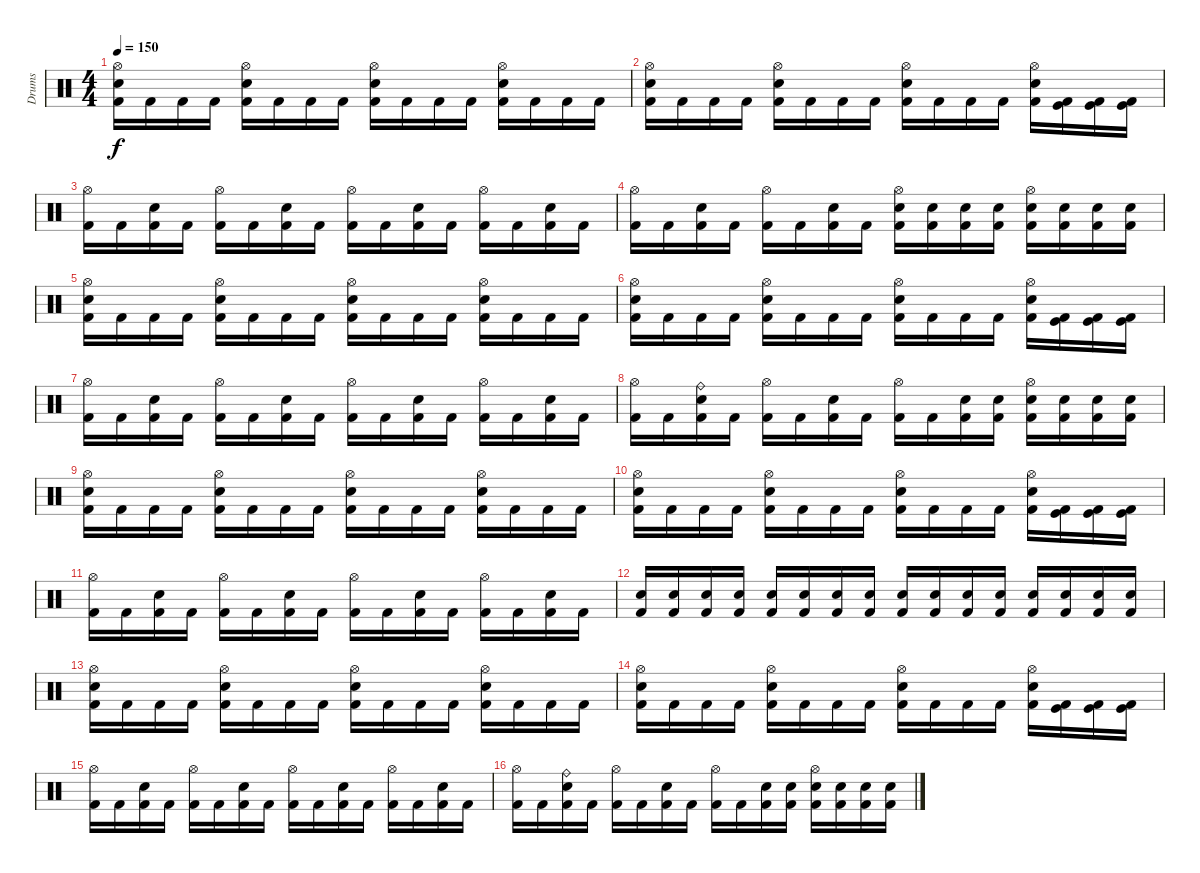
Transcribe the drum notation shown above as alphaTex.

\track ("Drums" "Drums") {instrument percussion}
\staff {score}
\articulation defaults
\ts (4 4)
\tempo 150
\clef neutral
\ks c
("Hi-Hat (open)" "Electric Snare (hit)" "Kick (hit) 2").16{dy f} "Kick (hit) 2".16 "Kick (hit) 2".16 "Kick (hit) 2".16 ("Hi-Hat (open)" "Electric Snare (hit)" "Kick (hit) 2").16 "Kick (hit) 2".16 "Kick (hit) 2".16 "Kick (hit) 2".16 ("Hi-Hat (open)" "Electric Snare (hit)" "Kick (hit) 2").16 "Kick (hit) 2".16 "Kick (hit) 2".16 "Kick (hit) 2".16 ("Hi-Hat (open)" "Electric Snare (hit)" "Kick (hit) 2").16 "Kick (hit) 2".16 "Kick (hit) 2".16 "Kick (hit) 2".16 |
("Hi-Hat (open)" "Electric Snare (hit)" "Kick (hit) 2").16 "Kick (hit) 2".16 "Kick (hit) 2".16 "Kick (hit) 2".16 ("Hi-Hat (open)" "Electric Snare (hit)" "Kick (hit) 2").16 "Kick (hit) 2".16 "Kick (hit) 2".16 "Kick (hit) 2".16 ("Hi-Hat (open)" "Electric Snare (hit)" "Kick (hit) 2").16 "Kick (hit) 2".16 "Kick (hit) 2".16 "Kick (hit) 2".16 ("Hi-Hat (open)" "Electric Snare (hit)" "Kick (hit) 2").16 ("Kick (hit)" "Kick (hit) 2").16 ("Kick (hit)" "Kick (hit) 2").16 ("Kick (hit)" "Kick (hit) 2").16 |
("Hi-Hat (open)" "Kick (hit) 2").16 "Kick (hit) 2".16 ("Electric Snare (hit)" "Kick (hit) 2").16 "Kick (hit) 2".16 ("Hi-Hat (open)" "Kick (hit) 2").16 "Kick (hit) 2".16 ("Electric Snare (hit)" "Kick (hit) 2").16 "Kick (hit) 2".16 ("Hi-Hat (open)" "Kick (hit) 2").16 "Kick (hit) 2".16 ("Electric Snare (hit)" "Kick (hit) 2").16 "Kick (hit) 2".16 ("Hi-Hat (open)" "Kick (hit) 2").16 "Kick (hit) 2".16 ("Electric Snare (hit)" "Kick (hit) 2").16 "Kick (hit) 2".16 |
("Hi-Hat (open)" "Kick (hit) 2").16 "Kick (hit) 2".16 ("Electric Snare (hit)" "Kick (hit) 2").16 "Kick (hit) 2".16 ("Hi-Hat (open)" "Kick (hit) 2").16 "Kick (hit) 2".16 ("Electric Snare (hit)" "Kick (hit) 2").16 "Kick (hit) 2".16 ("Hi-Hat (open)" "Snare (hit) 2" "Kick (hit) 2").16 ("Snare (hit) 2" "Kick (hit) 2").16 ("Snare (hit) 2" "Kick (hit) 2").16 ("Snare (hit) 2" "Kick (hit) 2").16 ("Hi-Hat (open)" "Snare (hit) 2" "Kick (hit) 2").16 ("Snare (hit) 2" "Kick (hit) 2").16 ("Snare (hit) 2" "Kick (hit) 2").16 ("Snare (hit) 2" "Kick (hit) 2").16 |
("Hi-Hat (open)" "Electric Snare (hit)" "Kick (hit) 2").16 "Kick (hit) 2".16 "Kick (hit) 2".16 "Kick (hit) 2".16 ("Hi-Hat (open)" "Electric Snare (hit)" "Kick (hit) 2").16 "Kick (hit) 2".16 "Kick (hit) 2".16 "Kick (hit) 2".16 ("Hi-Hat (open)" "Electric Snare (hit)" "Kick (hit) 2").16 "Kick (hit) 2".16 "Kick (hit) 2".16 "Kick (hit) 2".16 ("Hi-Hat (open)" "Electric Snare (hit)" "Kick (hit) 2").16 "Kick (hit) 2".16 "Kick (hit) 2".16 "Kick (hit) 2".16 |
("Hi-Hat (open)" "Electric Snare (hit)" "Kick (hit) 2").16 "Kick (hit) 2".16 "Kick (hit) 2".16 "Kick (hit) 2".16 ("Hi-Hat (open)" "Electric Snare (hit)" "Kick (hit) 2").16 "Kick (hit) 2".16 "Kick (hit) 2".16 "Kick (hit) 2".16 ("Hi-Hat (open)" "Electric Snare (hit)" "Kick (hit) 2").16 "Kick (hit) 2".16 "Kick (hit) 2".16 "Kick (hit) 2".16 ("Hi-Hat (open)" "Electric Snare (hit)" "Kick (hit) 2").16 ("Kick (hit)" "Kick (hit) 2").16 ("Kick (hit)" "Kick (hit) 2").16 ("Kick (hit)" "Kick (hit) 2").16 |
("Hi-Hat (open)" "Kick (hit) 2").16 "Kick (hit) 2".16 ("Electric Snare (hit)" "Kick (hit) 2").16 "Kick (hit) 2".16 ("Hi-Hat (open)" "Kick (hit) 2").16 "Kick (hit) 2".16 ("Electric Snare (hit)" "Kick (hit) 2").16 "Kick (hit) 2".16 ("Hi-Hat (open)" "Kick (hit) 2").16 "Kick (hit) 2".16 ("Electric Snare (hit)" "Kick (hit) 2").16 "Kick (hit) 2".16 ("Hi-Hat (open)" "Kick (hit) 2").16 "Kick (hit) 2".16 ("Electric Snare (hit)" "Kick (hit) 2").16 "Kick (hit) 2".16 |
("Hi-Hat (open)" "Kick (hit) 2").16 "Kick (hit) 2".16 ("Ride (bell)" "Electric Snare (hit)" "Kick (hit) 2").16 "Kick (hit) 2".16 ("Hi-Hat (open)" "Kick (hit) 2").16 "Kick (hit) 2".16 ("Electric Snare (hit)" "Kick (hit) 2").16 "Kick (hit) 2".16 ("Hi-Hat (open)" "Kick (hit) 2").16 "Kick (hit) 2".16 ("Snare (hit) 2" "Kick (hit) 2").16 ("Snare (hit) 2" "Kick (hit) 2").16 ("Hi-Hat (open)" "Snare (hit) 2" "Kick (hit) 2").16 ("Snare (hit) 2" "Kick (hit) 2").16 ("Snare (hit) 2" "Kick (hit) 2").16 ("Snare (hit) 2" "Kick (hit) 2").16 |
("Hi-Hat (open)" "Electric Snare (hit)" "Kick (hit) 2").16 "Kick (hit) 2".16 "Kick (hit) 2".16 "Kick (hit) 2".16 ("Hi-Hat (open)" "Electric Snare (hit)" "Kick (hit) 2").16 "Kick (hit) 2".16 "Kick (hit) 2".16 "Kick (hit) 2".16 ("Hi-Hat (open)" "Electric Snare (hit)" "Kick (hit) 2").16 "Kick (hit) 2".16 "Kick (hit) 2".16 "Kick (hit) 2".16 ("Hi-Hat (open)" "Electric Snare (hit)" "Kick (hit) 2").16 "Kick (hit) 2".16 "Kick (hit) 2".16 "Kick (hit) 2".16 |
("Hi-Hat (open)" "Electric Snare (hit)" "Kick (hit) 2").16 "Kick (hit) 2".16 "Kick (hit) 2".16 "Kick (hit) 2".16 ("Hi-Hat (open)" "Electric Snare (hit)" "Kick (hit) 2").16 "Kick (hit) 2".16 "Kick (hit) 2".16 "Kick (hit) 2".16 ("Hi-Hat (open)" "Electric Snare (hit)" "Kick (hit) 2").16 "Kick (hit) 2".16 "Kick (hit) 2".16 "Kick (hit) 2".16 ("Hi-Hat (open)" "Electric Snare (hit)" "Kick (hit) 2").16 ("Kick (hit)" "Kick (hit) 2").16 ("Kick (hit)" "Kick (hit) 2").16 ("Kick (hit)" "Kick (hit) 2").16 |
("Hi-Hat (open)" "Kick (hit) 2").16 "Kick (hit) 2".16 ("Electric Snare (hit)" "Kick (hit) 2").16 "Kick (hit) 2".16 ("Hi-Hat (open)" "Kick (hit) 2").16 "Kick (hit) 2".16 ("Electric Snare (hit)" "Kick (hit) 2").16 "Kick (hit) 2".16 ("Hi-Hat (open)" "Kick (hit) 2").16 "Kick (hit) 2".16 ("Electric Snare (hit)" "Kick (hit) 2").16 "Kick (hit) 2".16 ("Hi-Hat (open)" "Kick (hit) 2").16 "Kick (hit) 2".16 ("Electric Snare (hit)" "Kick (hit) 2").16 "Kick (hit) 2".16 |
("Snare (hit) 2" "Kick (hit) 2").16 ("Snare (hit) 2" "Kick (hit) 2").16 ("Snare (hit) 2" "Kick (hit) 2").16 ("Snare (hit) 2" "Kick (hit) 2").16 ("Snare (hit) 2" "Kick (hit) 2").16 ("Snare (hit) 2" "Kick (hit) 2").16 ("Snare (hit) 2" "Kick (hit) 2").16 ("Snare (hit) 2" "Kick (hit) 2").16 ("Snare (hit) 2" "Kick (hit) 2").16 ("Snare (hit) 2" "Kick (hit) 2").16 ("Snare (hit) 2" "Kick (hit) 2").16 ("Snare (hit) 2" "Kick (hit) 2").16 ("Snare (hit) 2" "Kick (hit) 2").16 ("Snare (hit) 2" "Kick (hit) 2").16 ("Snare (hit) 2" "Kick (hit) 2").16 ("Snare (hit) 2" "Kick (hit) 2").16 |
("Hi-Hat (open)" "Electric Snare (hit)" "Kick (hit) 2").16{volume 0} "Kick (hit) 2".16 "Kick (hit) 2".16 "Kick (hit) 2".16 ("Hi-Hat (open)" "Electric Snare (hit)" "Kick (hit) 2").16 "Kick (hit) 2".16 "Kick (hit) 2".16 "Kick (hit) 2".16 ("Hi-Hat (open)" "Electric Snare (hit)" "Kick (hit) 2").16 "Kick (hit) 2".16 "Kick (hit) 2".16 "Kick (hit) 2".16 ("Hi-Hat (open)" "Electric Snare (hit)" "Kick (hit) 2").16 "Kick (hit) 2".16 "Kick (hit) 2".16 "Kick (hit) 2".16 |
("Hi-Hat (open)" "Electric Snare (hit)" "Kick (hit) 2").16 "Kick (hit) 2".16 "Kick (hit) 2".16 "Kick (hit) 2".16 ("Hi-Hat (open)" "Electric Snare (hit)" "Kick (hit) 2").16 "Kick (hit) 2".16 "Kick (hit) 2".16 "Kick (hit) 2".16 ("Hi-Hat (open)" "Electric Snare (hit)" "Kick (hit) 2").16 "Kick (hit) 2".16 "Kick (hit) 2".16 "Kick (hit) 2".16 ("Hi-Hat (open)" "Electric Snare (hit)" "Kick (hit) 2").16 ("Kick (hit)" "Kick (hit) 2").16 ("Kick (hit)" "Kick (hit) 2").16 ("Kick (hit)" "Kick (hit) 2").16 |
("Hi-Hat (open)" "Kick (hit) 2").16 "Kick (hit) 2".16 ("Electric Snare (hit)" "Kick (hit) 2").16 "Kick (hit) 2".16 ("Hi-Hat (open)" "Kick (hit) 2").16 "Kick (hit) 2".16 ("Electric Snare (hit)" "Kick (hit) 2").16 "Kick (hit) 2".16 ("Hi-Hat (open)" "Kick (hit) 2").16 "Kick (hit) 2".16 ("Electric Snare (hit)" "Kick (hit) 2").16 "Kick (hit) 2".16 ("Hi-Hat (open)" "Kick (hit) 2").16 "Kick (hit) 2".16 ("Electric Snare (hit)" "Kick (hit) 2").16 "Kick (hit) 2".16 |
("Hi-Hat (open)" "Kick (hit) 2").16 "Kick (hit) 2".16 ("Ride (bell)" "Electric Snare (hit)" "Kick (hit) 2").16 "Kick (hit) 2".16 ("Hi-Hat (open)" "Kick (hit) 2").16 "Kick (hit) 2".16 ("Electric Snare (hit)" "Kick (hit) 2").16 "Kick (hit) 2".16 ("Hi-Hat (open)" "Kick (hit) 2").16 "Kick (hit) 2".16 ("Snare (hit) 2" "Kick (hit) 2").16 ("Snare (hit) 2" "Kick (hit) 2").16 ("Hi-Hat (open)" "Snare (hit) 2" "Kick (hit) 2").16 ("Snare (hit) 2" "Kick (hit) 2").16 ("Snare (hit) 2" "Kick (hit) 2").16 ("Snare (hit) 2" "Kick (hit) 2").16
